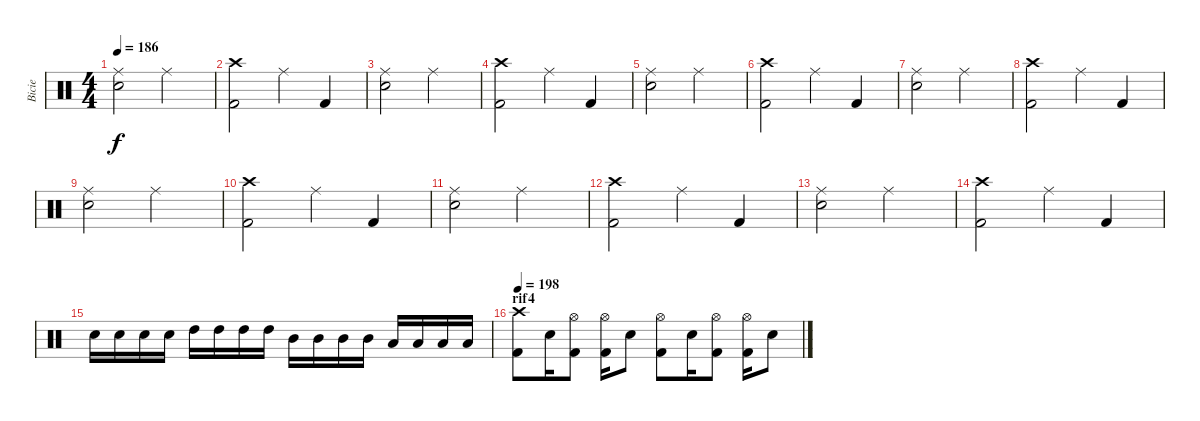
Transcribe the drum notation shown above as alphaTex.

\track ("Bicie" "Bicie") {instrument percussion}
\staff {score}
\articulation defaults
\ts (4 4)
\tempo 186
\clef neutral
\ks c
("Ride (middle)" "Electric Snare (hit)").2{dy f} "Ride (middle)".2 |
("Crash high (hit)" "Kick (hit) 2").2 "Ride (middle)".4 "Kick (hit) 2".4 |
("Ride (middle)" "Electric Snare (hit)").2 "Ride (middle)".2 |
("Crash high (hit)" "Kick (hit) 2").2 "Ride (middle)".4 "Kick (hit) 2".4 |
("Ride (middle)" "Electric Snare (hit)").2 "Ride (middle)".2 |
("Crash high (hit)" "Kick (hit) 2").2 "Ride (middle)".4 "Kick (hit) 2".4 |
("Ride (middle)" "Electric Snare (hit)").2 "Ride (middle)".2 |
("Crash high (hit)" "Kick (hit) 2").2 "Ride (middle)".4 "Kick (hit) 2".4 |
("Ride (middle)" "Electric Snare (hit)").2 "Ride (middle)".2 |
("Crash high (hit)" "Kick (hit) 2").2 "Ride (middle)".4 "Kick (hit) 2".4 |
("Ride (middle)" "Electric Snare (hit)").2 "Ride (middle)".2 |
("Crash high (hit)" "Kick (hit) 2").2 "Ride (middle)".4 "Kick (hit) 2".4 |
("Ride (middle)" "Electric Snare (hit)").2 "Ride (middle)".2 |
("Crash high (hit)" "Kick (hit) 2").2 "Ride (middle)".4 "Kick (hit) 2".4 |
"Electric Snare (hit)".16 "Electric Snare (hit)".16 "Electric Snare (hit)".16 "Electric Snare (hit)".16 "High Tom (hit)".16 "High Tom (hit)".16 "High Tom (hit)".16 "High Tom (hit)".16 "Mid Tom (hit)".16 "Mid Tom (hit)".16 "Mid Tom (hit)".16 "Mid Tom (hit)".16 "Low Tom (hit)".16 "Low Tom (hit)".16 "Low Tom (hit)".16 "Low Tom (hit)".16 |
\section ("" "rif4")
\tempo 198
("Crash high (hit)" "Kick (hit) 2").8 "Electric Snare (hit)".16 ("Hi-Hat (open)" "Kick (hit) 2").8 ("Hi-Hat (open)" "Kick (hit) 2").16 "Electric Snare (hit)".8 ("Hi-Hat (open)" "Kick (hit) 2").8 "Electric Snare (hit)".16 ("Hi-Hat (open)" "Kick (hit) 2").8 ("Hi-Hat (open)" "Kick (hit) 2").16 "Electric Snare (hit)".8
